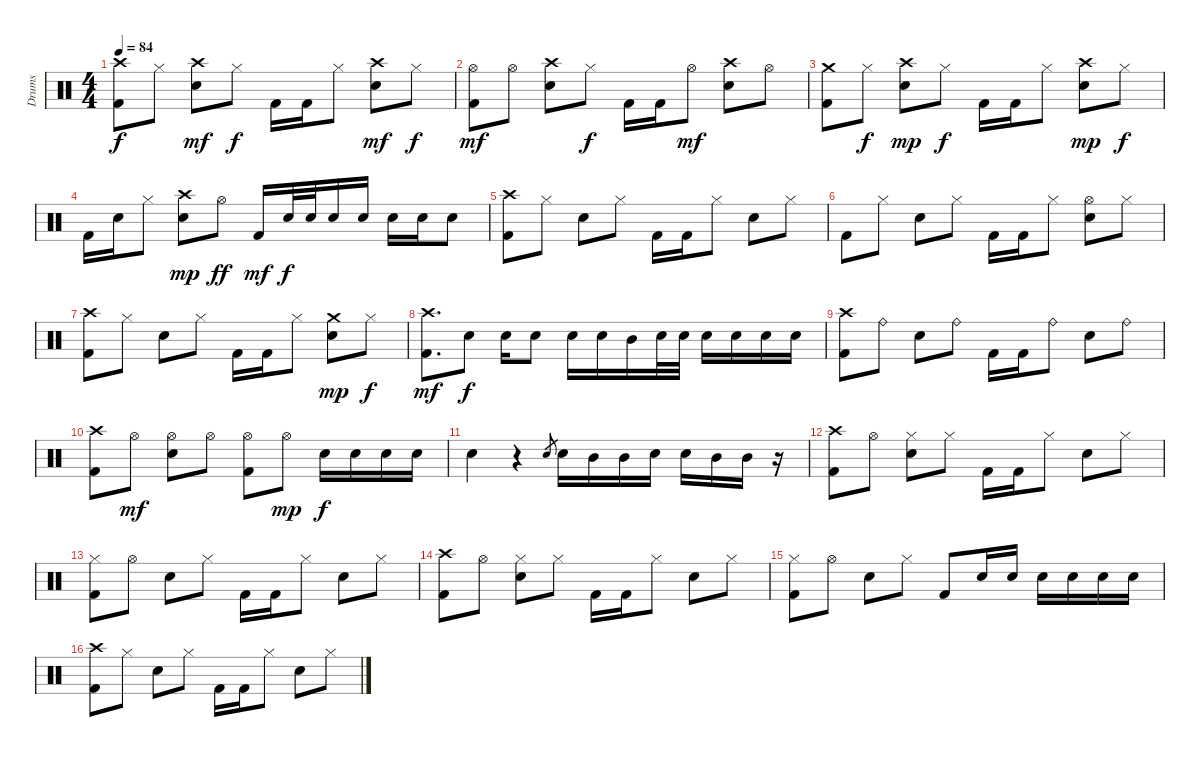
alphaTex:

\track ("Drums" "Drums") {instrument percussion}
\staff {score}
\articulation defaults
\ts (4 4)
\tempo 84
\clef neutral
\ks c
("Kick (hit) 2" "Crash high (hit)").8{dy f} "Hi-Hat (closed)".8 ("Snare (hit) 2" "Crash high (hit)").8{dy mf} "Hi-Hat (closed)".8{dy f} "Kick (hit) 2".16 "Kick (hit) 2".16 "Hi-Hat (closed)".8 ("Snare (hit) 2" "Crash high (hit)").8{dy mf} "Hi-Hat (closed)".8{dy f} |
("Kick (hit) 2" "Hi-Hat (open)").8{dy mf} "Hi-Hat (open)".8 ("Snare (hit) 2" "Crash high (hit)").8 "Hi-Hat (closed)".8{dy f} "Kick (hit) 2".16 "Kick (hit) 2".16 "Hi-Hat (open)".8{dy mf} ("Snare (hit) 2" "Crash high (hit)").8 "Hi-Hat (open)".8 |
("Kick (hit) 2" "Crash medium (hit)").8 "Hi-Hat (closed)".8{dy f} ("Snare (hit) 2" "Crash high (hit)").8{dy mp} "Hi-Hat (closed)".8{dy f} "Kick (hit) 2".16 "Kick (hit) 2".16 "Hi-Hat (closed)".8 ("Snare (hit) 2" "Crash high (hit)").8{dy mp} "Hi-Hat (closed)".8{dy f} |
"Kick (hit) 2".16 "Snare (hit) 2".16 "Hi-Hat (closed)".8 ("Snare (hit) 2" "Crash high (hit)").8{dy mp} "Hi-Hat (open)".8{dy ff} "Kick (hit) 2".16{dy mf} "Snare (hit) 2".32{dy f} "Snare (hit) 2".32 "Snare (hit) 2".16 "Snare (hit) 2".16 "Snare (hit) 2".16 "Snare (hit) 2".16 "Snare (hit) 2".8 |
("Kick (hit) 2" "Crash high (hit)").8 "Hi-Hat (closed)".8 "Snare (hit) 2".8 "Hi-Hat (closed)".8 "Kick (hit) 2".16 "Kick (hit) 2".16 "Hi-Hat (closed)".8 "Snare (hit) 2".8 "Hi-Hat (closed)".8 |
"Kick (hit) 2".8 "Hi-Hat (closed)".8 "Snare (hit) 2".8 "Hi-Hat (closed)".8 "Kick (hit) 2".16 "Kick (hit) 2".16 "Hi-Hat (closed)".8 ("Snare (hit) 2" "Hi-Hat (open)").8 "Hi-Hat (closed)".8 |
("Kick (hit) 2" "Crash high (hit)").8 "Hi-Hat (closed)".8 "Snare (hit) 2".8 "Hi-Hat (closed)".8 "Kick (hit) 2".16 "Kick (hit) 2".16 "Hi-Hat (closed)".8 ("Snare (hit) 2" "Crash medium (hit)").8{dy mp} "Hi-Hat (closed)".8{dy f} |
("Kick (hit) 2" "Crash high (hit)").8{d dy mf} "Snare (hit) 2".8{dy f} "Snare (hit) 2".16 "Snare (hit) 2".8 "Snare (hit) 2".16 "Snare (hit) 2".16 "Mid Tom (hit)".16 "Snare (hit) 2".32 "Snare (hit) 2".32 "Snare (hit) 2".16 "Snare (hit) 2".16 "Snare (hit) 2".16 "Snare (hit) 2".16 |
("Kick (hit) 2" "Crash high (hit)").8 "Ride (bell)".8 "Snare (hit) 2".8 "Ride (bell)".8 "Kick (hit) 2".16 "Kick (hit) 2".16 "Ride (bell)".8 "Snare (hit) 2".8 "Ride (bell)".8 |
("Kick (hit) 2" "Crash high (hit)").8 "Hi-Hat (open)".8{dy mf} ("Snare (hit) 2" "Hi-Hat (open)").8 "Hi-Hat (open)".8 ("Kick (hit) 2" "Hi-Hat (open)").8 "Hi-Hat (open)".8{dy mp} "Snare (hit) 2".16{dy f} "Snare (hit) 2".16 "Snare (hit) 2".16 "Snare (hit) 2".16 |
"Snare (hit) 2".4 r.4 "Snare (hit) 2".8{gr} "Snare (hit) 2".16 "Mid Tom (hit)".16 "Mid Tom (hit)".16 "Snare (hit) 2".16 "Snare (hit) 2".16 "Mid Tom (hit)".16 "Mid Tom (hit)".16 r.16 |
("Kick (hit) 2" "Crash high (hit)").8 "Hi-Hat (open)".8 ("Snare (hit) 2" "Hi-Hat (closed)").8 "Hi-Hat (closed)".8 "Kick (hit) 2".16 "Kick (hit) 2".16 "Hi-Hat (closed)".8 "Snare (hit) 2".8 "Hi-Hat (closed)".8 |
("Kick (hit) 2" "Hi-Hat (closed)").8 "Hi-Hat (open)".8 "Snare (hit) 2".8 "Hi-Hat (closed)".8 "Kick (hit) 2".16 "Kick (hit) 2".16 "Hi-Hat (closed)".8 "Snare (hit) 2".8 "Hi-Hat (closed)".8 |
("Kick (hit) 2" "Crash high (hit)").8 "Hi-Hat (open)".8 ("Snare (hit) 2" "Hi-Hat (closed)").8 "Hi-Hat (closed)".8 "Kick (hit) 2".16 "Kick (hit) 2".16 "Hi-Hat (closed)".8 "Snare (hit) 2".8 "Hi-Hat (closed)".8 |
("Kick (hit) 2" "Hi-Hat (closed)").8 "Hi-Hat (open)".8 "Snare (hit) 2".8 "Hi-Hat (closed)".8 "Kick (hit) 2".8 "Snare (hit) 2".16 "Snare (hit) 2".16 "Snare (hit) 2".16 "Snare (hit) 2".16 "Snare (hit) 2".16 "Snare (hit) 2".16 |
("Kick (hit) 2" "Crash high (hit)").8 "Hi-Hat (closed)".8 "Snare (hit) 2".8 "Hi-Hat (closed)".8 "Kick (hit) 2".16 "Kick (hit) 2".16 "Hi-Hat (closed)".8 "Snare (hit) 2".8 "Hi-Hat (closed)".8
